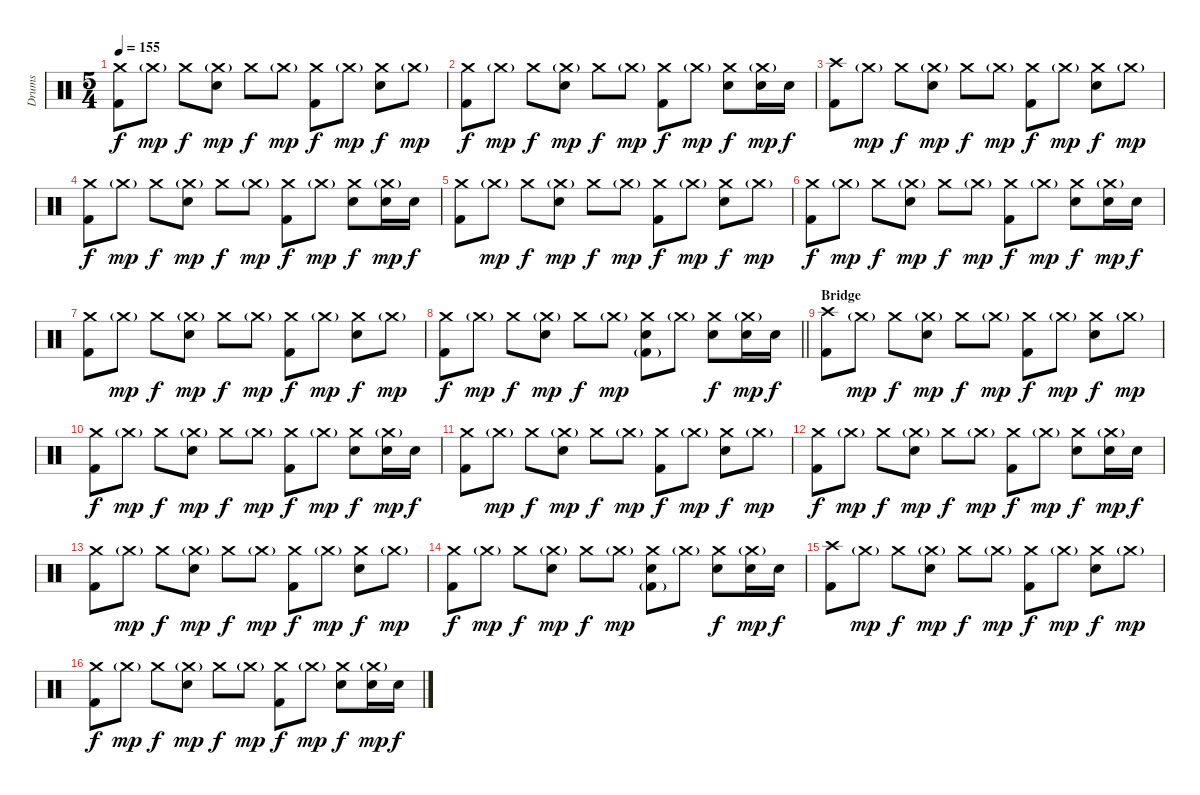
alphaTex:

\track ("Drums" "Drums") {instrument percussion}
\staff {score}
\articulation defaults
\ts (5 4)
\tempo 155
\clef neutral
\ks c
("Crash medium (hit)" "Kick (hit) 2").8{dy f} "Crash medium (hit)"{g}.8{dy mp} "Crash medium (hit)".8{dy f} ("Crash medium (hit)"{g} "Electric Snare (hit)").8{dy mp} "Crash medium (hit)".8{dy f} "Crash medium (hit)"{g}.8{dy mp} ("Crash medium (hit)" "Kick (hit) 2").8{dy f} "Crash medium (hit)"{g}.8{dy mp} ("Crash medium (hit)" "Electric Snare (hit)").8{dy f} "Crash medium (hit)"{g}.8{dy mp} |
("Crash medium (hit)" "Kick (hit) 2").8{dy f} "Crash medium (hit)"{g}.8{dy mp} "Crash medium (hit)".8{dy f} ("Crash medium (hit)"{g} "Electric Snare (hit)").8{dy mp} "Crash medium (hit)".8{dy f} "Crash medium (hit)"{g}.8{dy mp} ("Crash medium (hit)" "Kick (hit) 2").8{dy f} "Crash medium (hit)"{g}.8{dy mp} ("Crash medium (hit)" "Electric Snare (hit)").8{dy f} ("Crash medium (hit)"{g} "Electric Snare (hit)").16{dy mp} "Electric Snare (hit)".16{dy f} |
("Crash high (hit)" "Kick (hit) 2").8 "Crash medium (hit)"{g}.8{dy mp} "Crash medium (hit)".8{dy f} ("Crash medium (hit)"{g} "Electric Snare (hit)").8{dy mp} "Crash medium (hit)".8{dy f} "Crash medium (hit)"{g}.8{dy mp} ("Crash medium (hit)" "Kick (hit) 2").8{dy f} "Crash medium (hit)"{g}.8{dy mp} ("Crash medium (hit)" "Electric Snare (hit)").8{dy f} "Crash medium (hit)"{g}.8{dy mp} |
("Crash medium (hit)" "Kick (hit) 2").8{dy f} "Crash medium (hit)"{g}.8{dy mp} "Crash medium (hit)".8{dy f} ("Crash medium (hit)"{g} "Electric Snare (hit)").8{dy mp} "Crash medium (hit)".8{dy f} "Crash medium (hit)"{g}.8{dy mp} ("Crash medium (hit)" "Kick (hit) 2").8{dy f} "Crash medium (hit)"{g}.8{dy mp} ("Crash medium (hit)" "Electric Snare (hit)").8{dy f} ("Crash medium (hit)"{g} "Electric Snare (hit)").16{dy mp} "Electric Snare (hit)".16{dy f} |
("Crash medium (hit)" "Kick (hit) 2").8 "Crash medium (hit)"{g}.8{dy mp} "Crash medium (hit)".8{dy f} ("Crash medium (hit)"{g} "Electric Snare (hit)").8{dy mp} "Crash medium (hit)".8{dy f} "Crash medium (hit)"{g}.8{dy mp} ("Crash medium (hit)" "Kick (hit) 2").8{dy f} "Crash medium (hit)"{g}.8{dy mp} ("Crash medium (hit)" "Electric Snare (hit)").8{dy f} "Crash medium (hit)"{g}.8{dy mp} |
("Crash medium (hit)" "Kick (hit) 2").8{dy f} "Crash medium (hit)"{g}.8{dy mp} "Crash medium (hit)".8{dy f} ("Crash medium (hit)"{g} "Electric Snare (hit)").8{dy mp} "Crash medium (hit)".8{dy f} "Crash medium (hit)"{g}.8{dy mp} ("Crash medium (hit)" "Kick (hit) 2").8{dy f} "Crash medium (hit)"{g}.8{dy mp} ("Crash medium (hit)" "Electric Snare (hit)").8{dy f} ("Crash medium (hit)"{g} "Electric Snare (hit)").16{dy mp} "Electric Snare (hit)".16{dy f} |
("Crash medium (hit)" "Kick (hit) 2").8 "Crash medium (hit)"{g}.8{dy mp} "Crash medium (hit)".8{dy f} ("Crash medium (hit)"{g} "Electric Snare (hit)").8{dy mp} "Crash medium (hit)".8{dy f} "Crash medium (hit)"{g}.8{dy mp} ("Crash medium (hit)" "Kick (hit) 2").8{dy f} "Crash medium (hit)"{g}.8{dy mp} ("Crash medium (hit)" "Electric Snare (hit)").8{dy f} "Crash medium (hit)"{g}.8{dy mp} |
\barLineRight lightlight
("Crash medium (hit)" "Kick (hit) 2").8{dy f} "Crash medium (hit)"{g}.8{dy mp} "Crash medium (hit)".8{dy f} ("Crash medium (hit)"{g} "Electric Snare (hit)").8{dy mp} "Crash medium (hit)".8{dy f} "Crash medium (hit)"{g}.8{dy mp} ("Crash medium (hit)" "Electric Snare (hit)" "Kick (hit) 2"{g}).8 "Crash medium (hit)"{g}.8 ("Crash medium (hit)" "Electric Snare (hit)").8{dy f} ("Crash medium (hit)"{g} "Electric Snare (hit)").16{dy mp} "Electric Snare (hit)".16{dy f} |
\section ("" "Bridge")
("Crash high (hit)" "Kick (hit) 2").8 "Crash medium (hit)"{g}.8{dy mp} "Crash medium (hit)".8{dy f} ("Crash medium (hit)"{g} "Electric Snare (hit)").8{dy mp} "Crash medium (hit)".8{dy f} "Crash medium (hit)"{g}.8{dy mp} ("Crash medium (hit)" "Kick (hit) 2").8{dy f} "Crash medium (hit)"{g}.8{dy mp} ("Crash medium (hit)" "Electric Snare (hit)").8{dy f} "Crash medium (hit)"{g}.8{dy mp} |
("Crash medium (hit)" "Kick (hit) 2").8{dy f} "Crash medium (hit)"{g}.8{dy mp} "Crash medium (hit)".8{dy f} ("Crash medium (hit)"{g} "Electric Snare (hit)").8{dy mp} "Crash medium (hit)".8{dy f} "Crash medium (hit)"{g}.8{dy mp} ("Crash medium (hit)" "Kick (hit) 2").8{dy f} "Crash medium (hit)"{g}.8{dy mp} ("Crash medium (hit)" "Electric Snare (hit)").8{dy f} ("Crash medium (hit)"{g} "Electric Snare (hit)").16{dy mp} "Electric Snare (hit)".16{dy f} |
("Crash medium (hit)" "Kick (hit) 2").8 "Crash medium (hit)"{g}.8{dy mp} "Crash medium (hit)".8{dy f} ("Crash medium (hit)"{g} "Electric Snare (hit)").8{dy mp} "Crash medium (hit)".8{dy f} "Crash medium (hit)"{g}.8{dy mp} ("Crash medium (hit)" "Kick (hit) 2").8{dy f} "Crash medium (hit)"{g}.8{dy mp} ("Crash medium (hit)" "Electric Snare (hit)").8{dy f} "Crash medium (hit)"{g}.8{dy mp} |
("Crash medium (hit)" "Kick (hit) 2").8{dy f} "Crash medium (hit)"{g}.8{dy mp} "Crash medium (hit)".8{dy f} ("Crash medium (hit)"{g} "Electric Snare (hit)").8{dy mp} "Crash medium (hit)".8{dy f} "Crash medium (hit)"{g}.8{dy mp} ("Crash medium (hit)" "Kick (hit) 2").8{dy f} "Crash medium (hit)"{g}.8{dy mp} ("Crash medium (hit)" "Electric Snare (hit)").8{dy f} ("Crash medium (hit)"{g} "Electric Snare (hit)").16{dy mp} "Electric Snare (hit)".16{dy f} |
("Crash medium (hit)" "Kick (hit) 2").8 "Crash medium (hit)"{g}.8{dy mp} "Crash medium (hit)".8{dy f} ("Crash medium (hit)"{g} "Electric Snare (hit)").8{dy mp} "Crash medium (hit)".8{dy f} "Crash medium (hit)"{g}.8{dy mp} ("Crash medium (hit)" "Kick (hit) 2").8{dy f} "Crash medium (hit)"{g}.8{dy mp} ("Crash medium (hit)" "Electric Snare (hit)").8{dy f} "Crash medium (hit)"{g}.8{dy mp} |
("Crash medium (hit)" "Kick (hit) 2").8{dy f} "Crash medium (hit)"{g}.8{dy mp} "Crash medium (hit)".8{dy f} ("Crash medium (hit)"{g} "Electric Snare (hit)").8{dy mp} "Crash medium (hit)".8{dy f} "Crash medium (hit)"{g}.8{dy mp} ("Crash medium (hit)" "Electric Snare (hit)" "Kick (hit) 2"{g}).8 "Crash medium (hit)"{g}.8 ("Crash medium (hit)" "Electric Snare (hit)").8{dy f} ("Crash medium (hit)"{g} "Electric Snare (hit)").16{dy mp} "Electric Snare (hit)".16{dy f} |
("Crash high (hit)" "Kick (hit) 2").8 "Crash medium (hit)"{g}.8{dy mp} "Crash medium (hit)".8{dy f} ("Crash medium (hit)"{g} "Electric Snare (hit)").8{dy mp} "Crash medium (hit)".8{dy f} "Crash medium (hit)"{g}.8{dy mp} ("Crash medium (hit)" "Kick (hit) 2").8{dy f} "Crash medium (hit)"{g}.8{dy mp} ("Crash medium (hit)" "Electric Snare (hit)").8{dy f} "Crash medium (hit)"{g}.8{dy mp} |
("Crash medium (hit)" "Kick (hit) 2").8{dy f} "Crash medium (hit)"{g}.8{dy mp} "Crash medium (hit)".8{dy f} ("Crash medium (hit)"{g} "Electric Snare (hit)").8{dy mp} "Crash medium (hit)".8{dy f} "Crash medium (hit)"{g}.8{dy mp} ("Crash medium (hit)" "Kick (hit) 2").8{dy f} "Crash medium (hit)"{g}.8{dy mp} ("Crash medium (hit)" "Electric Snare (hit)").8{dy f} ("Crash medium (hit)"{g} "Electric Snare (hit)").16{dy mp} "Electric Snare (hit)".16{dy f}
